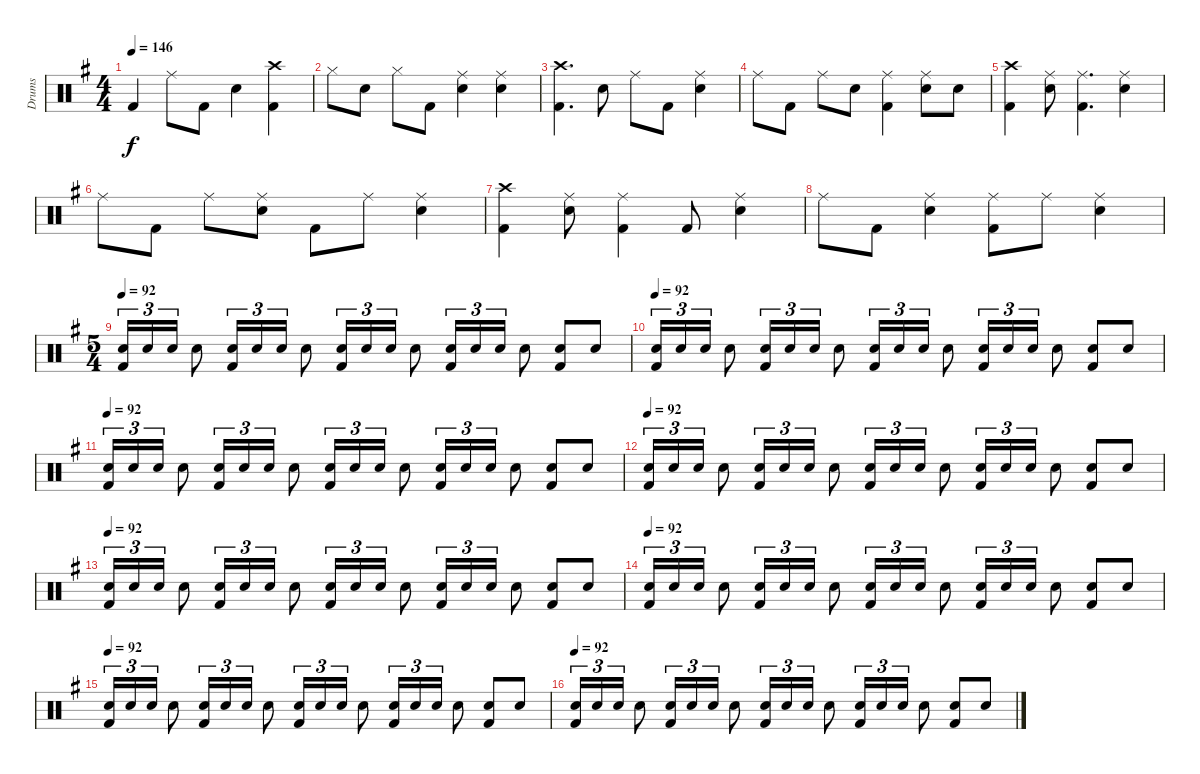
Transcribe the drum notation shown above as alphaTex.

\track ("Drums" "Drums") {instrument percussion}
\staff {score}
\articulation defaults
\ts (4 4)
\tempo 146
\clef neutral
\ks g "Kick (hit) 2".4{dy f} "Ride (middle)".8 "Kick (hit) 2".8 "Snare (hit) 2".4
("Kick (hit) 2" "Crash high (hit)").4 |
"Hi-Hat (closed)".8 "Snare (hit) 2".8 "Hi-Hat (closed)".8 "Kick (hit) 2".8 ("Snare (hit) 2" "Ride (middle)").4 ("Snare (hit) 2" "Ride (middle)").4 |
("Kick (hit) 2" "Crash high (hit)").4{d} "Snare (hit) 2".8 "Ride (middle)".8 "Kick (hit) 2".8 ("Snare (hit) 2" "Ride (middle)").4 |
"Ride (middle)".8 "Kick (hit) 2".8 "Ride (middle)".8 "Snare (hit) 2".8 ("Kick (hit) 2" "Ride (middle)").4 ("Snare (hit) 2" "Ride (middle)").8 "Snare (hit) 2".8 |
("Kick (hit) 2" "Crash high (hit)").4 ("Snare (hit) 2" "Ride (middle)").8 ("Kick (hit) 2" "Ride (middle)").4{d} ("Snare (hit) 2" "Ride (middle)").4 |
"Ride (middle)".8 "Kick (hit) 2".8 "Ride (middle)".8 ("Snare (hit) 2" "Ride (middle)").8 "Kick (hit) 2".8 "Ride (middle)".8 ("Snare (hit) 2" "Ride (middle)").4 |
("Kick (hit) 2" "Crash high (hit)").4 ("Snare (hit) 2" "Ride (middle)").8 ("Kick (hit) 2" "Ride (middle)").4 "Kick (hit) 2".8 ("Snare (hit) 2" "Ride (middle)").4 |
"Ride (middle)".8 "Kick (hit) 2".8 ("Snare (hit) 2" "Ride (middle)").4 ("Kick (hit) 2" "Ride (middle)").8 "Ride (middle)".8 ("Snare (hit) 2" "Ride (middle)").4 |
\ts (5 4)
\tempo 92
("Kick (hit) 2" "Snare (hit) 2").16{tu (3 2)} "Snare (hit) 2".16{tu (3 2)} "Snare (hit) 2".16{tu (3 2)} "Snare (hit) 2".8 ("Kick (hit) 2" "Snare (hit) 2").16{tu (3 2)} "Snare (hit) 2".16{tu (3 2)} "Snare (hit) 2".16{tu (3 2)} "Snare (hit) 2".8 ("Kick (hit) 2" "Snare (hit) 2").16{tu (3 2)} "Snare (hit) 2".16{tu (3 2)} "Snare (hit) 2".16{tu (3 2)} "Snare (hit) 2".8 ("Kick (hit) 2" "Snare (hit) 2").16{tu (3 2)} "Snare (hit) 2".16{tu (3 2)} "Snare (hit) 2".16{tu (3 2)} "Snare (hit) 2".8 ("Kick (hit) 2" "Snare (hit) 2").8 "Snare (hit) 2".8 |
\tempo 92
("Kick (hit) 2" "Snare (hit) 2").16{tu (3 2)} "Snare (hit) 2".16{tu (3 2)} "Snare (hit) 2".16{tu (3 2)} "Snare (hit) 2".8 ("Kick (hit) 2" "Snare (hit) 2").16{tu (3 2)} "Snare (hit) 2".16{tu (3 2)} "Snare (hit) 2".16{tu (3 2)} "Snare (hit) 2".8 ("Kick (hit) 2" "Snare (hit) 2").16{tu (3 2)} "Snare (hit) 2".16{tu (3 2)} "Snare (hit) 2".16{tu (3 2)} "Snare (hit) 2".8 ("Kick (hit) 2" "Snare (hit) 2").16{tu (3 2)} "Snare (hit) 2".16{tu (3 2)} "Snare (hit) 2".16{tu (3 2)} "Snare (hit) 2".8 ("Kick (hit) 2" "Snare (hit) 2").8 "Snare (hit) 2".8 |
\tempo 92
("Kick (hit) 2" "Snare (hit) 2").16{tu (3 2)} "Snare (hit) 2".16{tu (3 2)} "Snare (hit) 2".16{tu (3 2)} "Snare (hit) 2".8 ("Kick (hit) 2" "Snare (hit) 2").16{tu (3 2)} "Snare (hit) 2".16{tu (3 2)} "Snare (hit) 2".16{tu (3 2)} "Snare (hit) 2".8 ("Kick (hit) 2" "Snare (hit) 2").16{tu (3 2)} "Snare (hit) 2".16{tu (3 2)} "Snare (hit) 2".16{tu (3 2)} "Snare (hit) 2".8 ("Kick (hit) 2" "Snare (hit) 2").16{tu (3 2)} "Snare (hit) 2".16{tu (3 2)} "Snare (hit) 2".16{tu (3 2)} "Snare (hit) 2".8 ("Kick (hit) 2" "Snare (hit) 2").8 "Snare (hit) 2".8 |
\tempo 92
("Kick (hit) 2" "Snare (hit) 2").16{tu (3 2)} "Snare (hit) 2".16{tu (3 2)} "Snare (hit) 2".16{tu (3 2)} "Snare (hit) 2".8 ("Kick (hit) 2" "Snare (hit) 2").16{tu (3 2)} "Snare (hit) 2".16{tu (3 2)} "Snare (hit) 2".16{tu (3 2)} "Snare (hit) 2".8 ("Kick (hit) 2" "Snare (hit) 2").16{tu (3 2)} "Snare (hit) 2".16{tu (3 2)} "Snare (hit) 2".16{tu (3 2)} "Snare (hit) 2".8 ("Kick (hit) 2" "Snare (hit) 2").16{tu (3 2)} "Snare (hit) 2".16{tu (3 2)} "Snare (hit) 2".16{tu (3 2)} "Snare (hit) 2".8 ("Kick (hit) 2" "Snare (hit) 2").8 "Snare (hit) 2".8 |
\tempo 92
("Kick (hit) 2" "Snare (hit) 2").16{tu (3 2)} "Snare (hit) 2".16{tu (3 2)} "Snare (hit) 2".16{tu (3 2)} "Snare (hit) 2".8 ("Kick (hit) 2" "Snare (hit) 2").16{tu (3 2)} "Snare (hit) 2".16{tu (3 2)} "Snare (hit) 2".16{tu (3 2)} "Snare (hit) 2".8 ("Kick (hit) 2" "Snare (hit) 2").16{tu (3 2)} "Snare (hit) 2".16{tu (3 2)} "Snare (hit) 2".16{tu (3 2)} "Snare (hit) 2".8 ("Kick (hit) 2" "Snare (hit) 2").16{tu (3 2)} "Snare (hit) 2".16{tu (3 2)} "Snare (hit) 2".16{tu (3 2)} "Snare (hit) 2".8 ("Kick (hit) 2" "Snare (hit) 2").8 "Snare (hit) 2".8 |
\tempo 92
("Kick (hit) 2" "Snare (hit) 2").16{tu (3 2)} "Snare (hit) 2".16{tu (3 2)} "Snare (hit) 2".16{tu (3 2)} "Snare (hit) 2".8 ("Kick (hit) 2" "Snare (hit) 2").16{tu (3 2)} "Snare (hit) 2".16{tu (3 2)} "Snare (hit) 2".16{tu (3 2)} "Snare (hit) 2".8 ("Kick (hit) 2" "Snare (hit) 2").16{tu (3 2)} "Snare (hit) 2".16{tu (3 2)} "Snare (hit) 2".16{tu (3 2)} "Snare (hit) 2".8 ("Kick (hit) 2" "Snare (hit) 2").16{tu (3 2)} "Snare (hit) 2".16{tu (3 2)} "Snare (hit) 2".16{tu (3 2)} "Snare (hit) 2".8 ("Kick (hit) 2" "Snare (hit) 2").8 "Snare (hit) 2".8 |
\tempo 92
("Kick (hit) 2" "Snare (hit) 2").16{tu (3 2)} "Snare (hit) 2".16{tu (3 2)} "Snare (hit) 2".16{tu (3 2)} "Snare (hit) 2".8 ("Kick (hit) 2" "Snare (hit) 2").16{tu (3 2)} "Snare (hit) 2".16{tu (3 2)} "Snare (hit) 2".16{tu (3 2)} "Snare (hit) 2".8 ("Kick (hit) 2" "Snare (hit) 2").16{tu (3 2)} "Snare (hit) 2".16{tu (3 2)} "Snare (hit) 2".16{tu (3 2)} "Snare (hit) 2".8 ("Kick (hit) 2" "Snare (hit) 2").16{tu (3 2)} "Snare (hit) 2".16{tu (3 2)} "Snare (hit) 2".16{tu (3 2)} "Snare (hit) 2".8 ("Kick (hit) 2" "Snare (hit) 2").8 "Snare (hit) 2".8 |
\tempo 92
("Kick (hit) 2" "Snare (hit) 2").16{tu (3 2)} "Snare (hit) 2".16{tu (3 2)} "Snare (hit) 2".16{tu (3 2)} "Snare (hit) 2".8 ("Kick (hit) 2" "Snare (hit) 2").16{tu (3 2)} "Snare (hit) 2".16{tu (3 2)} "Snare (hit) 2".16{tu (3 2)} "Snare (hit) 2".8 ("Kick (hit) 2" "Snare (hit) 2").16{tu (3 2)} "Snare (hit) 2".16{tu (3 2)} "Snare (hit) 2".16{tu (3 2)} "Snare (hit) 2".8 ("Kick (hit) 2" "Snare (hit) 2").16{tu (3 2)} "Snare (hit) 2".16{tu (3 2)} "Snare (hit) 2".16{tu (3 2)} "Snare (hit) 2".8 ("Kick (hit) 2" "Snare (hit) 2").8 "Snare (hit) 2".8
